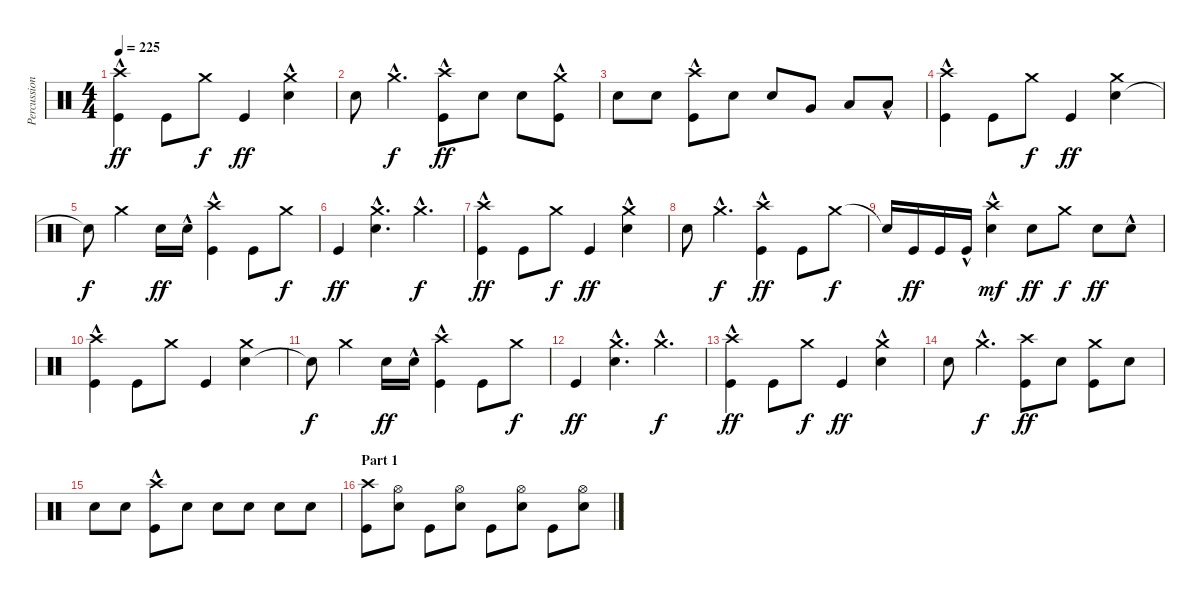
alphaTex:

\track ("Percussions" "Percussion") {instrument percussion}
\staff {score}
\articulation defaults
\ts (4 4)
\tempo 225
\clef neutral
\ks c
("Kick (hit)" "Crash high (hit)"{hac}).4{dy ff} "Kick (hit)".8 "Crash medium (hit)".8{dy f} "Kick (hit)".4{dy ff} ("Electric Snare (hit)" "Crash medium (hit)"{hac}).4 |
"Electric Snare (hit)".8 "Crash medium (hit)"{hac}.4{d dy f} ("Kick (hit)"{hac} "Crash high (hit)"{hac}).8{dy ff} "Electric Snare (hit)".8 "Electric Snare (hit)".8 ("Kick (hit)"{hac} "Crash medium (hit)"{hac}).8 |
"Electric Snare (hit)".8 "Electric Snare (hit)".8 ("Kick (hit)"{hac} "Crash high (hit)"{hac}).8 "Electric Snare (hit)".8 "Electric Snare (hit)".8 "Very Low Tom (hit)".8 "Low Floor Tom (hit)".8 "Low Floor Tom (hit)"{hac}.8 |
("Kick (hit)" "Crash high (hit)"{hac}).4 "Kick (hit)".8 "Crash medium (hit)".8{dy f} "Kick (hit)".4{dy ff} ("Electric Snare (hit)" "Crash medium (hit)").4 |
"Snare (hit)"{t}.8{dy f} "Crash medium (hit)".4 "Electric Snare (hit)".16{dy ff} "Electric Snare (hit)"{hac}.16 ("Kick (hit)" "Crash high (hit)"{hac}).4 "Kick (hit)".8 "Crash medium (hit)".8{dy f} |
"Kick (hit)".4{dy ff} ("Electric Snare (hit)" "Crash medium (hit)"{hac}).4{d} "Crash medium (hit)"{hac}.4{d dy f} |
("Kick (hit)" "Crash high (hit)"{hac}).4{dy ff} "Kick (hit)".8 "Crash medium (hit)".8{dy f} "Kick (hit)".4{dy ff} ("Electric Snare (hit)" "Crash medium (hit)"{hac}).4 |
"Electric Snare (hit)".8 "Crash medium (hit)"{hac}.4{d dy f} ("Kick (hit)" "Crash high (hit)"{hac}).4{dy ff} "Kick (hit)".8 "Crash medium (hit)".8{dy f} |
"Snare (hit)"{t}.16 "Kick (hit)".16{dy ff} "Kick (hit)".16 "Kick (hit)"{hac}.16 ("Electric Snare (hit)" "Crash high (hit)"{hac}).4{dy mf} "Electric Snare (hit)".8{dy ff} "Crash medium (hit)".8{dy f} "Electric Snare (hit)".8{dy ff} "Electric Snare (hit)"{hac}.8 |
("Kick (hit)" "Crash high (hit)"{hac}).4 "Kick (hit)".8 "Crash medium (hit)".8 "Kick (hit)".4 ("Electric Snare (hit)" "Crash medium (hit)").4 |
"Snare (hit)"{t}.8{dy f} "Crash medium (hit)".4 "Electric Snare (hit)".16{dy ff} "Electric Snare (hit)"{hac}.16 ("Kick (hit)" "Crash high (hit)"{hac}).4 "Kick (hit)".8 "Crash medium (hit)".8{dy f} |
"Kick (hit)".4{dy ff} ("Electric Snare (hit)"{hac} "Crash medium (hit)"{hac}).4{d} "Crash medium (hit)"{hac}.4{d dy f} |
("Kick (hit)" "Crash high (hit)"{hac}).4{dy ff} "Kick (hit)".8 "Crash medium (hit)".8{dy f} "Kick (hit)".4{dy ff} ("Electric Snare (hit)" "Crash medium (hit)"{hac}).4 |
"Electric Snare (hit)".8 "Crash medium (hit)"{hac}.4{d dy f} ("Kick (hit)" "Crash high (hit)").8{dy ff} "Electric Snare (hit)".8 ("Kick (hit)" "Crash medium (hit)").8 "Electric Snare (hit)".8 |
"Electric Snare (hit)".8 "Electric Snare (hit)".8 ("Kick (hit)"{hac} "Crash high (hit)"{hac}).8 "Electric Snare (hit)".8 "Electric Snare (hit)".8 "Electric Snare (hit)".8 "Electric Snare (hit)".8 "Electric Snare (hit)".8 |
\section ("" "Part 1")
("Kick (hit)" "Crash high (hit)").8 ("Electric Snare (hit)" "Hi-Hat (open)").8 "Kick (hit)".8 ("Electric Snare (hit)" "Hi-Hat (open)").8 "Kick (hit)".8 ("Electric Snare (hit)" "Hi-Hat (open)").8 "Kick (hit)".8 ("Electric Snare (hit)" "Hi-Hat (open)").8
